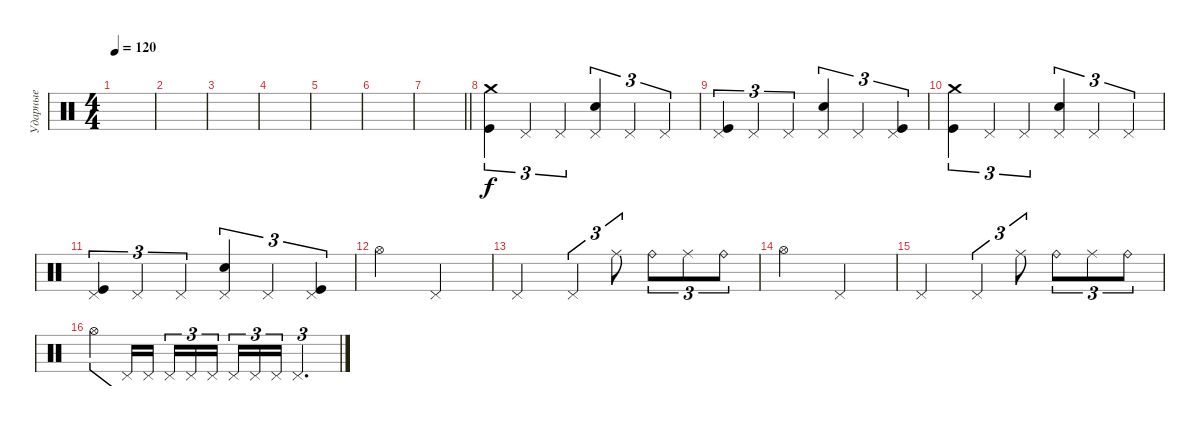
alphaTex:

\track ("Ударные" "Ударные") {instrument percussion}
\staff {score}
\articulation defaults
\ts (4 4)
\tempo 120
\clef neutral
\ks c
|
|
|
|
|
|
\barLineRight lightlight
|
\section ("" " ")
("Crash medium (hit)" "Kick (hit)").4{tu (3 2)} "Pedal Hi-Hat (hit)".4{tu (3 2)} "Pedal Hi-Hat (hit)".4{tu (3 2)} ("Pedal Hi-Hat (hit)" "Electric Snare (hit)").4{tu (3 2)} "Pedal Hi-Hat (hit)".4{tu (3 2)} "Pedal Hi-Hat (hit)".4{tu (3 2)} |
("Pedal Hi-Hat (hit)" "Kick (hit)").4{tu (3 2)} "Pedal Hi-Hat (hit)".4{tu (3 2)} "Pedal Hi-Hat (hit)".4{tu (3 2)} ("Pedal Hi-Hat (hit)" "Electric Snare (hit)").4{tu (3 2)} "Pedal Hi-Hat (hit)".4{tu (3 2)} ("Pedal Hi-Hat (hit)" "Kick (hit)").4{tu (3 2)} |
("Crash medium (hit)" "Kick (hit)").4{tu (3 2)} "Pedal Hi-Hat (hit)".4{tu (3 2)} "Pedal Hi-Hat (hit)".4{tu (3 2)} ("Pedal Hi-Hat (hit)" "Electric Snare (hit)").4{tu (3 2)} "Pedal Hi-Hat (hit)".4{tu (3 2)} "Pedal Hi-Hat (hit)".4{tu (3 2)} |
("Pedal Hi-Hat (hit)" "Kick (hit)").4{tu (3 2)} "Pedal Hi-Hat (hit)".4{tu (3 2)} "Pedal Hi-Hat (hit)".4{tu (3 2)} ("Pedal Hi-Hat (hit)" "Electric Snare (hit)").4{tu (3 2)} "Pedal Hi-Hat (hit)".4{tu (3 2)} ("Pedal Hi-Hat (hit)" "Kick (hit)").4{tu (3 2)} |
"Hi-Hat (open)".2 "Pedal Hi-Hat (hit)".2 |
"Pedal Hi-Hat (hit)".2 "Pedal Hi-Hat (hit)".4{tu (3 2)} "Ride (middle)".8{tu (3 2)} "Ride (bell)".8{tu (3 2)} "Ride (middle)".8{tu (3 2)} "Ride (bell)".8{tu (3 2)} |
"Hi-Hat (open)".2 "Pedal Hi-Hat (hit)".2 |
"Pedal Hi-Hat (hit)".2 "Pedal Hi-Hat (hit)".4{tu (3 2)} "Ride (middle)".8{tu (3 2)} "Ride (bell)".8{tu (3 2)} "Ride (middle)".8{tu (3 2)} "Ride (bell)".8{tu (3 2)} |
"Hi-Hat (open)".4{tu (3 2)} "Pedal Hi-Hat (hit)".16{tu (3 2)} "Pedal Hi-Hat (hit)".16{tu (3 2)} "Pedal Hi-Hat (hit)".16{tu (3 2)} "Pedal Hi-Hat (hit)".16{tu (3 2)} "Pedal Hi-Hat (hit)".16{tu (3 2) beam splitsecondary} "Pedal Hi-Hat (hit)".16{tu (3 2)} "Pedal Hi-Hat (hit)".16{tu (3 2)} "Pedal Hi-Hat (hit)".16{tu (3 2)} "Pedal Hi-Hat (hit)".2{d tu (3 2)}
